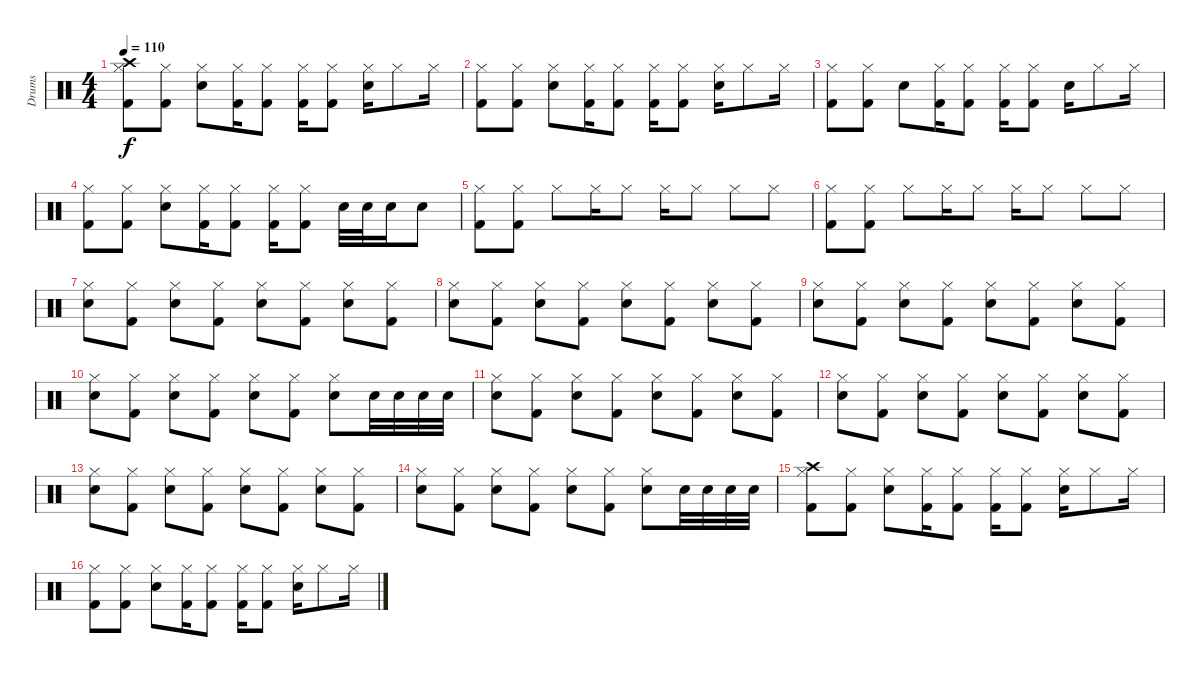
\track ("Drums" "Drums") {instrument percussion}
\staff {score}
\articulation defaults
\ts (4 4)
\tempo 110
\clef neutral
\ks c
("Crash high (hit)" "Hi-Hat (closed)" "Kick (hit) 2").8{dy f} ("Hi-Hat (closed)" "Kick (hit) 2").8 ("Hi-Hat (closed)" "Electric Snare (hit)").8 ("Hi-Hat (closed)" "Kick (hit) 2").16 ("Hi-Hat (closed)" "Kick (hit) 2").8 ("Hi-Hat (closed)" "Kick (hit) 2").16 ("Hi-Hat (closed)" "Kick (hit) 2").8 ("Hi-Hat (closed)" "Electric Snare (hit)").16 "Hi-Hat (closed)".8 "Hi-Hat (closed)".16 |
("Hi-Hat (closed)" "Kick (hit) 2").8 ("Hi-Hat (closed)" "Kick (hit) 2").8 ("Hi-Hat (closed)" "Electric Snare (hit)").8 ("Hi-Hat (closed)" "Kick (hit) 2").16 ("Hi-Hat (closed)" "Kick (hit) 2").8 ("Hi-Hat (closed)" "Kick (hit) 2").16 ("Hi-Hat (closed)" "Kick (hit) 2").8 ("Hi-Hat (closed)" "Electric Snare (hit)").16 "Hi-Hat (closed)".8 "Hi-Hat (closed)".16 |
("Hi-Hat (closed)" "Kick (hit) 2").8 ("Hi-Hat (closed)" "Kick (hit) 2").8 "Electric Snare (hit)".8 ("Hi-Hat (closed)" "Kick (hit) 2").16 ("Hi-Hat (closed)" "Kick (hit) 2").8 ("Hi-Hat (closed)" "Kick (hit) 2").16 ("Hi-Hat (closed)" "Kick (hit) 2").8 "Electric Snare (hit)".16 "Hi-Hat (closed)".8 "Hi-Hat (closed)".16 |
("Hi-Hat (closed)" "Kick (hit) 2").8 ("Hi-Hat (closed)" "Kick (hit) 2").8 ("Hi-Hat (closed)" "Electric Snare (hit)").8 ("Hi-Hat (closed)" "Kick (hit) 2").16 ("Hi-Hat (closed)" "Kick (hit) 2").8 ("Hi-Hat (closed)" "Kick (hit) 2").16 ("Hi-Hat (closed)" "Kick (hit) 2").8 "Electric Snare (hit)".32 "Electric Snare (hit)".32 "Electric Snare (hit)".16 "Electric Snare (hit)".8 |
("Hi-Hat (closed)" "Kick (hit) 2").8 ("Hi-Hat (closed)" "Kick (hit) 2").8 "Hi-Hat (closed)".8 "Hi-Hat (closed)".16 "Hi-Hat (closed)".8 "Hi-Hat (closed)".16 "Hi-Hat (closed)".8 "Hi-Hat (closed)".8 "Hi-Hat (closed)".8 |
("Hi-Hat (closed)" "Kick (hit) 2").8 ("Hi-Hat (closed)" "Kick (hit) 2").8 "Hi-Hat (closed)".8 "Hi-Hat (closed)".16 "Hi-Hat (closed)".8 "Hi-Hat (closed)".16 "Hi-Hat (closed)".8 "Hi-Hat (closed)".8 "Hi-Hat (closed)".8 |
("Hi-Hat (closed)" "Electric Snare (hit)").8 ("Hi-Hat (closed)" "Kick (hit) 2").8 ("Hi-Hat (closed)" "Electric Snare (hit)").8 ("Hi-Hat (closed)" "Kick (hit) 2").8 ("Hi-Hat (closed)" "Electric Snare (hit)").8 ("Hi-Hat (closed)" "Kick (hit) 2").8 ("Hi-Hat (closed)" "Electric Snare (hit)").8 ("Hi-Hat (closed)" "Kick (hit) 2").8 |
("Hi-Hat (closed)" "Electric Snare (hit)").8 ("Hi-Hat (closed)" "Kick (hit) 2").8 ("Hi-Hat (closed)" "Electric Snare (hit)").8 ("Hi-Hat (closed)" "Kick (hit) 2").8 ("Hi-Hat (closed)" "Electric Snare (hit)").8 ("Hi-Hat (closed)" "Kick (hit) 2").8 ("Hi-Hat (closed)" "Electric Snare (hit)").8 ("Hi-Hat (closed)" "Kick (hit) 2").8 |
("Hi-Hat (closed)" "Electric Snare (hit)").8 ("Hi-Hat (closed)" "Kick (hit) 2").8 ("Hi-Hat (closed)" "Electric Snare (hit)").8 ("Hi-Hat (closed)" "Kick (hit) 2").8 ("Hi-Hat (closed)" "Electric Snare (hit)").8 ("Hi-Hat (closed)" "Kick (hit) 2").8 ("Hi-Hat (closed)" "Electric Snare (hit)").8 ("Hi-Hat (closed)" "Kick (hit) 2").8 |
("Hi-Hat (closed)" "Electric Snare (hit)").8 ("Hi-Hat (closed)" "Kick (hit) 2").8 ("Hi-Hat (closed)" "Electric Snare (hit)").8 ("Hi-Hat (closed)" "Kick (hit) 2").8 ("Hi-Hat (closed)" "Electric Snare (hit)").8 ("Hi-Hat (closed)" "Kick (hit) 2").8 ("Hi-Hat (closed)" "Electric Snare (hit)").8 "Electric Snare (hit)".32 "Electric Snare (hit)".32 "Electric Snare (hit)".32 "Electric Snare (hit)".32 |
("Hi-Hat (closed)" "Electric Snare (hit)").8 ("Hi-Hat (closed)" "Kick (hit) 2").8 ("Hi-Hat (closed)" "Electric Snare (hit)").8 ("Hi-Hat (closed)" "Kick (hit) 2").8 ("Hi-Hat (closed)" "Electric Snare (hit)").8 ("Hi-Hat (closed)" "Kick (hit) 2").8 ("Hi-Hat (closed)" "Electric Snare (hit)").8 ("Hi-Hat (closed)" "Kick (hit) 2").8 |
("Hi-Hat (closed)" "Electric Snare (hit)").8 ("Hi-Hat (closed)" "Kick (hit) 2").8 ("Hi-Hat (closed)" "Electric Snare (hit)").8 ("Hi-Hat (closed)" "Kick (hit) 2").8 ("Hi-Hat (closed)" "Electric Snare (hit)").8 ("Hi-Hat (closed)" "Kick (hit) 2").8 ("Hi-Hat (closed)" "Electric Snare (hit)").8 ("Hi-Hat (closed)" "Kick (hit) 2").8 |
("Hi-Hat (closed)" "Electric Snare (hit)").8 ("Hi-Hat (closed)" "Kick (hit) 2").8 ("Hi-Hat (closed)" "Electric Snare (hit)").8 ("Hi-Hat (closed)" "Kick (hit) 2").8 ("Hi-Hat (closed)" "Electric Snare (hit)").8 ("Hi-Hat (closed)" "Kick (hit) 2").8 ("Hi-Hat (closed)" "Electric Snare (hit)").8 ("Hi-Hat (closed)" "Kick (hit) 2").8 |
("Hi-Hat (closed)" "Electric Snare (hit)").8 ("Hi-Hat (closed)" "Kick (hit) 2").8 ("Hi-Hat (closed)" "Electric Snare (hit)").8 ("Hi-Hat (closed)" "Kick (hit) 2").8 ("Hi-Hat (closed)" "Electric Snare (hit)").8 ("Hi-Hat (closed)" "Kick (hit) 2").8 ("Hi-Hat (closed)" "Electric Snare (hit)").8 "Electric Snare (hit)".32 "Electric Snare (hit)".32 "Electric Snare (hit)".32 "Electric Snare (hit)".32 |
("Crash high (hit)" "Hi-Hat (closed)" "Kick (hit) 2").8 ("Hi-Hat (closed)" "Kick (hit) 2").8 ("Hi-Hat (closed)" "Electric Snare (hit)").8 ("Hi-Hat (closed)" "Kick (hit) 2").16 ("Hi-Hat (closed)" "Kick (hit) 2").8 ("Hi-Hat (closed)" "Kick (hit) 2").16 ("Hi-Hat (closed)" "Kick (hit) 2").8 ("Hi-Hat (closed)" "Electric Snare (hit)").16 "Hi-Hat (closed)".8 "Hi-Hat (closed)".16 |
("Hi-Hat (closed)" "Kick (hit) 2").8 ("Hi-Hat (closed)" "Kick (hit) 2").8 ("Hi-Hat (closed)" "Electric Snare (hit)").8 ("Hi-Hat (closed)" "Kick (hit) 2").16 ("Hi-Hat (closed)" "Kick (hit) 2").8 ("Hi-Hat (closed)" "Kick (hit) 2").16 ("Hi-Hat (closed)" "Kick (hit) 2").8 ("Hi-Hat (closed)" "Electric Snare (hit)").16 "Hi-Hat (closed)".8 "Hi-Hat (closed)".16
